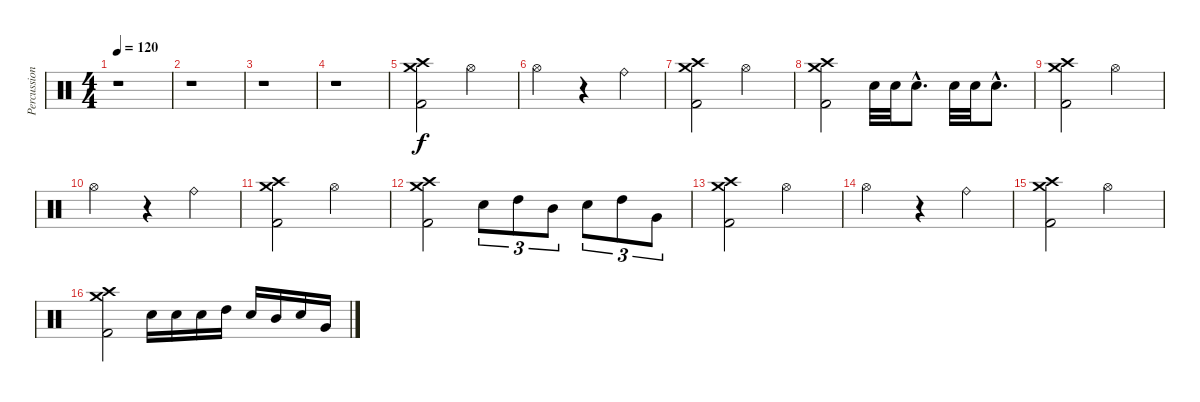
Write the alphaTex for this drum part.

\track ("Percussion" "Percussion") {instrument percussion}
\staff {score}
\articulation defaults
\ts (4 4)
\tempo 120
\clef neutral
\ks c
r.1{dy f} |
r.1 |
r.1 |
r.1 |
("Crash high (hit)" "Crash medium (hit)" "Kick (hit) 2").2 "Hi-Hat (open)".2 |
"Hi-Hat (open)".2 r.4 "Ride (bell)".4 |
("Crash high (hit)" "Crash medium (hit)" "Kick (hit) 2").2 "Hi-Hat (open)".2 |
("Crash high (hit)" "Crash medium (hit)" "Kick (hit) 2").2 "Electric Snare (hit)".32 "Electric Snare (hit)".32 "Electric Snare (hit)"{hac}.8{d} "Electric Snare (hit)".32 "Electric Snare (hit)".32 "Electric Snare (hit)"{hac}.8{d} |
("Crash high (hit)" "Crash medium (hit)" "Kick (hit) 2").2 "Hi-Hat (open)".2 |
"Hi-Hat (open)".2 r.4 "Ride (bell)".4 |
("Crash high (hit)" "Crash medium (hit)" "Kick (hit) 2").2 "Hi-Hat (open)".2 |
("Crash high (hit)" "Crash medium (hit)" "Kick (hit) 2").2 "Electric Snare (hit)".8{tu (3 2)} "High Tom (hit)".8{tu (3 2)} "Mid Tom (hit)".8{tu (3 2)} "Electric Snare (hit)".8{tu (3 2)} "High Tom (hit)".8{tu (3 2)} "Very Low Tom (hit)".8{tu (3 2)} |
("Crash high (hit)" "Crash medium (hit)" "Kick (hit) 2").2 "Hi-Hat (open)".2 |
"Hi-Hat (open)".2 r.4 "Ride (bell)".4 |
("Crash high (hit)" "Crash medium (hit)" "Kick (hit) 2").2 "Hi-Hat (open)".2 |
("Crash high (hit)" "Crash medium (hit)" "Kick (hit) 2").2 "Electric Snare (hit)".16 "Electric Snare (hit)".16 "Electric Snare (hit)".16 "High Tom (hit)".16 "Electric Snare (hit)".16 "Mid Tom (hit)".16 "Electric Snare (hit)".16 "Very Low Tom (hit)".16
